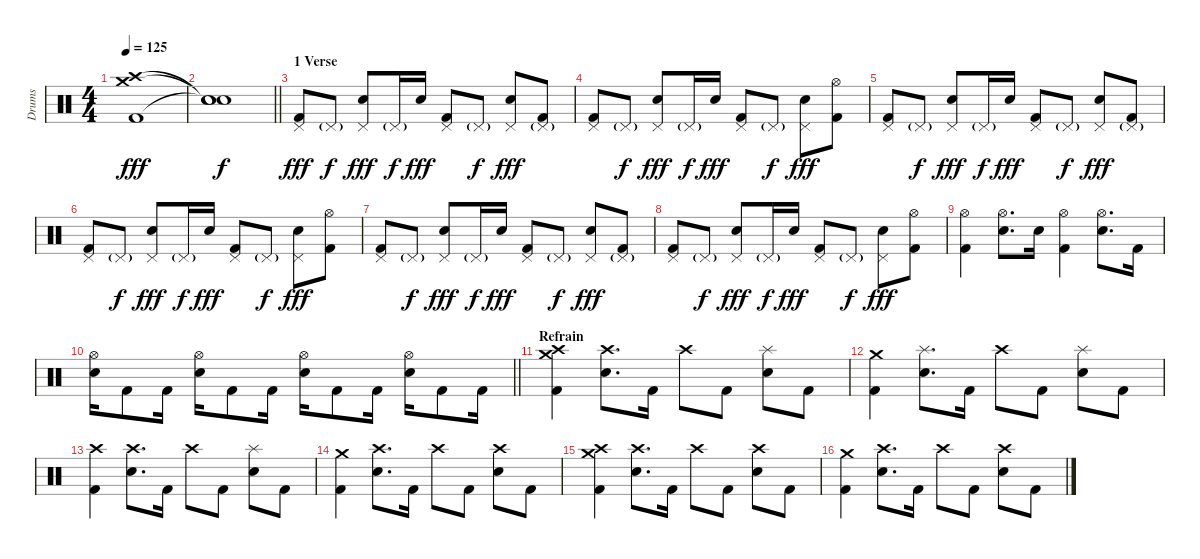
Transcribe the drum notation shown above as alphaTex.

\track ("Drums" "Drums") {instrument percussion}
\staff {score}
\articulation defaults
\ts (4 4)
\tempo 125
\clef neutral
\ks c
("Crash medium (hit)" "Crash high (hit)" "Kick (hit) 2").1{dy fff} |
\barLineRight lightlight
("Snare (hit)"{t} "Snare (hit)"{t} "Snare (hit)"{t}).1{dy f} |
\section ("" "1 Verse")
("Pedal Hi-Hat (hit)" "Kick (hit) 2").8{dy fff} "Pedal Hi-Hat (hit)"{g}.8{dy f} ("Pedal Hi-Hat (hit)" "Electric Snare (hit)").8{dy fff} "Pedal Hi-Hat (hit)"{g}.16{dy f} "Electric Snare (hit)".16{dy fff} ("Pedal Hi-Hat (hit)" "Kick (hit) 2").8 "Pedal Hi-Hat (hit)"{g}.8{dy f} ("Pedal Hi-Hat (hit)" "Electric Snare (hit)").8{dy fff} ("Pedal Hi-Hat (hit)"{g} "Kick (hit) 2").8 |
("Pedal Hi-Hat (hit)" "Kick (hit) 2").8 "Pedal Hi-Hat (hit)"{g}.8{dy f} ("Pedal Hi-Hat (hit)" "Electric Snare (hit)").8{dy fff} "Pedal Hi-Hat (hit)"{g}.16{dy f} "Electric Snare (hit)".16{dy fff} ("Pedal Hi-Hat (hit)" "Kick (hit) 2").8 "Pedal Hi-Hat (hit)"{g}.8{dy f} ("Pedal Hi-Hat (hit)" "Electric Snare (hit)").8{dy fff} ("Hi-Hat (open)" "Kick (hit) 2").8 |
("Pedal Hi-Hat (hit)" "Kick (hit) 2").8 "Pedal Hi-Hat (hit)"{g}.8{dy f} ("Pedal Hi-Hat (hit)" "Electric Snare (hit)").8{dy fff} "Pedal Hi-Hat (hit)"{g}.16{dy f} "Electric Snare (hit)".16{dy fff} ("Pedal Hi-Hat (hit)" "Kick (hit) 2").8 "Pedal Hi-Hat (hit)"{g}.8{dy f} ("Pedal Hi-Hat (hit)" "Electric Snare (hit)").8{dy fff} ("Pedal Hi-Hat (hit)"{g} "Kick (hit) 2").8 |
("Pedal Hi-Hat (hit)" "Kick (hit) 2").8 "Pedal Hi-Hat (hit)"{g}.8{dy f} ("Pedal Hi-Hat (hit)" "Electric Snare (hit)").8{dy fff} "Pedal Hi-Hat (hit)"{g}.16{dy f} "Electric Snare (hit)".16{dy fff} ("Pedal Hi-Hat (hit)" "Kick (hit) 2").8 "Pedal Hi-Hat (hit)"{g}.8{dy f} ("Pedal Hi-Hat (hit)" "Electric Snare (hit)").8{dy fff} ("Hi-Hat (open)" "Kick (hit) 2").8 |
("Pedal Hi-Hat (hit)" "Kick (hit) 2").8 "Pedal Hi-Hat (hit)"{g}.8{dy f} ("Pedal Hi-Hat (hit)" "Electric Snare (hit)").8{dy fff} "Pedal Hi-Hat (hit)"{g}.16{dy f} "Electric Snare (hit)".16{dy fff} ("Pedal Hi-Hat (hit)" "Kick (hit) 2").8 "Pedal Hi-Hat (hit)"{g}.8{dy f} ("Pedal Hi-Hat (hit)" "Electric Snare (hit)").8{dy fff} ("Pedal Hi-Hat (hit)"{g} "Kick (hit) 2").8 |
("Pedal Hi-Hat (hit)" "Kick (hit) 2").8 "Pedal Hi-Hat (hit)"{g}.8{dy f} ("Pedal Hi-Hat (hit)" "Electric Snare (hit)").8{dy fff} "Pedal Hi-Hat (hit)"{g}.16{dy f} "Electric Snare (hit)".16{dy fff} ("Pedal Hi-Hat (hit)" "Kick (hit) 2").8 "Pedal Hi-Hat (hit)"{g}.8{dy f} ("Pedal Hi-Hat (hit)" "Electric Snare (hit)").8{dy fff} ("Hi-Hat (open)" "Kick (hit) 2").8 |
("Hi-Hat (open)" "Kick (hit) 2").4 ("Hi-Hat (open)" "Electric Snare (hit)").8{d} "Electric Snare (hit)".16 ("Hi-Hat (open)" "Kick (hit) 2").4 ("Hi-Hat (open)" "Electric Snare (hit)").8{d} "Kick (hit) 2".16 |
\barLineRight lightlight
("Hi-Hat (open)" "Electric Snare (hit)").16 "Kick (hit) 2".8 "Kick (hit) 2".16 ("Hi-Hat (open)" "Electric Snare (hit)").16 "Kick (hit) 2".8 "Kick (hit) 2".16 ("Hi-Hat (open)" "Electric Snare (hit)").16 "Kick (hit) 2".8 "Kick (hit) 2".16 ("Hi-Hat (open)" "Electric Snare (hit)").16 "Kick (hit) 2".8 "Kick (hit) 2".16 |
\section ("" "Refrain")
("Crash medium (hit)" "Crash high (hit)" "Kick (hit) 2").4 ("Crash high (hit)" "Electric Snare (hit)").8{d} "Kick (hit) 2".16 "Crash high (hit)".8 "Kick (hit) 2".8 ("Splash (hit)" "Electric Snare (hit)").8 "Kick (hit) 2".8 |
("Crash medium (hit)" "Kick (hit) 2").4 ("Splash (hit)" "Electric Snare (hit)").8{d} "Kick (hit) 2".16 "Crash high (hit)".8 "Kick (hit) 2".8 ("Splash (hit)" "Electric Snare (hit)").8 "Kick (hit) 2".8 |
("Crash high (hit)" "Kick (hit) 2").4 ("Crash high (hit)" "Electric Snare (hit)").8{d} "Kick (hit) 2".16 "Crash high (hit)".8 "Kick (hit) 2".8 ("Splash (hit)" "Electric Snare (hit)").8 "Kick (hit) 2".8 |
("Crash medium (hit)" "Kick (hit) 2").4 ("Crash high (hit)" "Electric Snare (hit)").8{d} "Kick (hit) 2".16 "Crash high (hit)".8 "Kick (hit) 2".8 ("Crash high (hit)" "Electric Snare (hit)").8 "Kick (hit) 2".8 |
("Crash high (hit)" "Crash medium (hit)" "Kick (hit) 2").4 ("Crash high (hit)" "Electric Snare (hit)").8{d} "Kick (hit) 2".16 "Crash high (hit)".8 "Kick (hit) 2".8 ("Crash high (hit)" "Electric Snare (hit)").8 "Kick (hit) 2".8 |
("Crash medium (hit)" "Kick (hit) 2").4 ("Crash high (hit)" "Electric Snare (hit)").8{d} "Kick (hit) 2".16 "Crash high (hit)".8 "Kick (hit) 2".8 ("Crash high (hit)" "Electric Snare (hit)").8 "Kick (hit) 2".8
